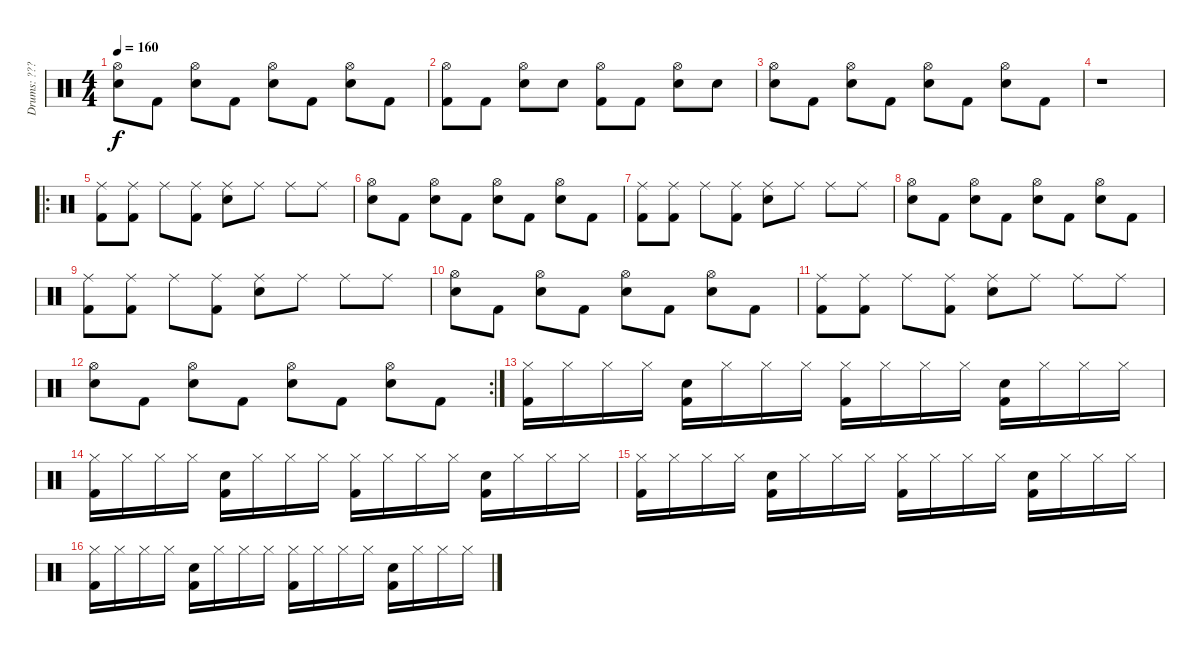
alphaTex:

\track ("Drums: ???" "Drums: ???") {instrument percussion}
\staff {score}
\articulation defaults
\ts (4 4)
\tempo 160
\clef neutral
\ks c
("Snare (hit) 2" "Hi-Hat (open)").8{dy f} "Kick (hit) 2".8 ("Snare (hit) 2" "Hi-Hat (open)").8 "Kick (hit) 2".8 ("Snare (hit) 2" "Hi-Hat (open)").8 "Kick (hit) 2".8 ("Snare (hit) 2" "Hi-Hat (open)").8 "Kick (hit) 2".8 |
("Hi-Hat (open)" "Kick (hit) 2").8 "Kick (hit) 2".8 ("Hi-Hat (open)" "Snare (hit) 2").8 "Snare (hit) 2".8 ("Hi-Hat (open)" "Kick (hit) 2").8 "Kick (hit) 2".8 ("Hi-Hat (open)" "Snare (hit) 2").8 "Snare (hit) 2".8 |
("Snare (hit) 2" "Hi-Hat (open)").8 "Kick (hit) 2".8 ("Snare (hit) 2" "Hi-Hat (open)").8 "Kick (hit) 2".8 ("Snare (hit) 2" "Hi-Hat (open)").8 "Kick (hit) 2".8 ("Snare (hit) 2" "Hi-Hat (open)").8 "Kick (hit) 2".8 |
r.1 |
\ro
("Ride (middle)" "Kick (hit) 2").8 ("Ride (middle)" "Kick (hit) 2").8 "Ride (middle)".8 ("Ride (middle)" "Kick (hit) 2").8 ("Ride (middle)" "Snare (hit) 2").8 "Ride (middle)".8 "Ride (middle)".8 "Ride (middle)".8 |
("Snare (hit) 2" "Hi-Hat (open)").8 "Kick (hit) 2".8 ("Snare (hit) 2" "Hi-Hat (open)").8 "Kick (hit) 2".8 ("Snare (hit) 2" "Hi-Hat (open)").8 "Kick (hit) 2".8 ("Snare (hit) 2" "Hi-Hat (open)").8 "Kick (hit) 2".8 |
("Ride (middle)" "Kick (hit) 2").8 ("Ride (middle)" "Kick (hit) 2").8 "Ride (middle)".8 ("Ride (middle)" "Kick (hit) 2").8 ("Ride (middle)" "Snare (hit) 2").8 "Ride (middle)".8 "Ride (middle)".8 "Ride (middle)".8 |
("Snare (hit) 2" "Hi-Hat (open)").8 "Kick (hit) 2".8 ("Snare (hit) 2" "Hi-Hat (open)").8 "Kick (hit) 2".8 ("Snare (hit) 2" "Hi-Hat (open)").8 "Kick (hit) 2".8 ("Snare (hit) 2" "Hi-Hat (open)").8 "Kick (hit) 2".8 |
("Ride (middle)" "Kick (hit) 2").8 ("Ride (middle)" "Kick (hit) 2").8 "Ride (middle)".8 ("Ride (middle)" "Kick (hit) 2").8 ("Ride (middle)" "Snare (hit) 2").8 "Ride (middle)".8 "Ride (middle)".8 "Ride (middle)".8 |
("Snare (hit) 2" "Hi-Hat (open)").8 "Kick (hit) 2".8 ("Snare (hit) 2" "Hi-Hat (open)").8 "Kick (hit) 2".8 ("Snare (hit) 2" "Hi-Hat (open)").8 "Kick (hit) 2".8 ("Snare (hit) 2" "Hi-Hat (open)").8 "Kick (hit) 2".8 |
("Ride (middle)" "Kick (hit) 2").8 ("Ride (middle)" "Kick (hit) 2").8 "Ride (middle)".8 ("Ride (middle)" "Kick (hit) 2").8 ("Ride (middle)" "Snare (hit) 2").8 "Ride (middle)".8 "Ride (middle)".8 "Ride (middle)".8 |
\rc 2
("Snare (hit) 2" "Hi-Hat (open)").8 "Kick (hit) 2".8 ("Snare (hit) 2" "Hi-Hat (open)").8 "Kick (hit) 2".8 ("Snare (hit) 2" "Hi-Hat (open)").8 "Kick (hit) 2".8 ("Snare (hit) 2" "Hi-Hat (open)").8 "Kick (hit) 2".8 |
("Hi-Hat (closed)" "Kick (hit) 2").16{volume 12} "Hi-Hat (closed)".16 "Hi-Hat (closed)".16 "Hi-Hat (closed)".16 ("Snare (hit) 2" "Kick (hit) 2").16 "Hi-Hat (closed)".16 "Hi-Hat (closed)".16 "Hi-Hat (closed)".16 ("Hi-Hat (closed)" "Kick (hit) 2").16 "Hi-Hat (closed)".16 "Hi-Hat (closed)".16 "Hi-Hat (closed)".16 ("Snare (hit) 2" "Kick (hit) 2").16 "Hi-Hat (closed)".16 "Hi-Hat (closed)".16 "Hi-Hat (closed)".16 |
("Hi-Hat (closed)" "Kick (hit) 2").16 "Hi-Hat (closed)".16 "Hi-Hat (closed)".16 "Hi-Hat (closed)".16 ("Snare (hit) 2" "Kick (hit) 2").16 "Hi-Hat (closed)".16 "Hi-Hat (closed)".16 "Hi-Hat (closed)".16 ("Hi-Hat (closed)" "Kick (hit) 2").16 "Hi-Hat (closed)".16 "Hi-Hat (closed)".16 "Hi-Hat (closed)".16 ("Snare (hit) 2" "Kick (hit) 2").16 "Hi-Hat (closed)".16 "Hi-Hat (closed)".16 "Hi-Hat (closed)".16 |
("Hi-Hat (closed)" "Kick (hit) 2").16 "Hi-Hat (closed)".16 "Hi-Hat (closed)".16 "Hi-Hat (closed)".16 ("Snare (hit) 2" "Kick (hit) 2").16 "Hi-Hat (closed)".16 "Hi-Hat (closed)".16 "Hi-Hat (closed)".16 ("Hi-Hat (closed)" "Kick (hit) 2").16 "Hi-Hat (closed)".16 "Hi-Hat (closed)".16 "Hi-Hat (closed)".16 ("Snare (hit) 2" "Kick (hit) 2").16 "Hi-Hat (closed)".16 "Hi-Hat (closed)".16 "Hi-Hat (closed)".16 |
("Hi-Hat (closed)" "Kick (hit) 2").16 "Hi-Hat (closed)".16 "Hi-Hat (closed)".16 "Hi-Hat (closed)".16 ("Snare (hit) 2" "Kick (hit) 2").16 "Hi-Hat (closed)".16 "Hi-Hat (closed)".16 "Hi-Hat (closed)".16 ("Hi-Hat (closed)" "Kick (hit) 2").16 "Hi-Hat (closed)".16 "Hi-Hat (closed)".16 "Hi-Hat (closed)".16 ("Snare (hit) 2" "Kick (hit) 2").16 "Hi-Hat (closed)".16 "Hi-Hat (closed)".16 "Hi-Hat (closed)".16
